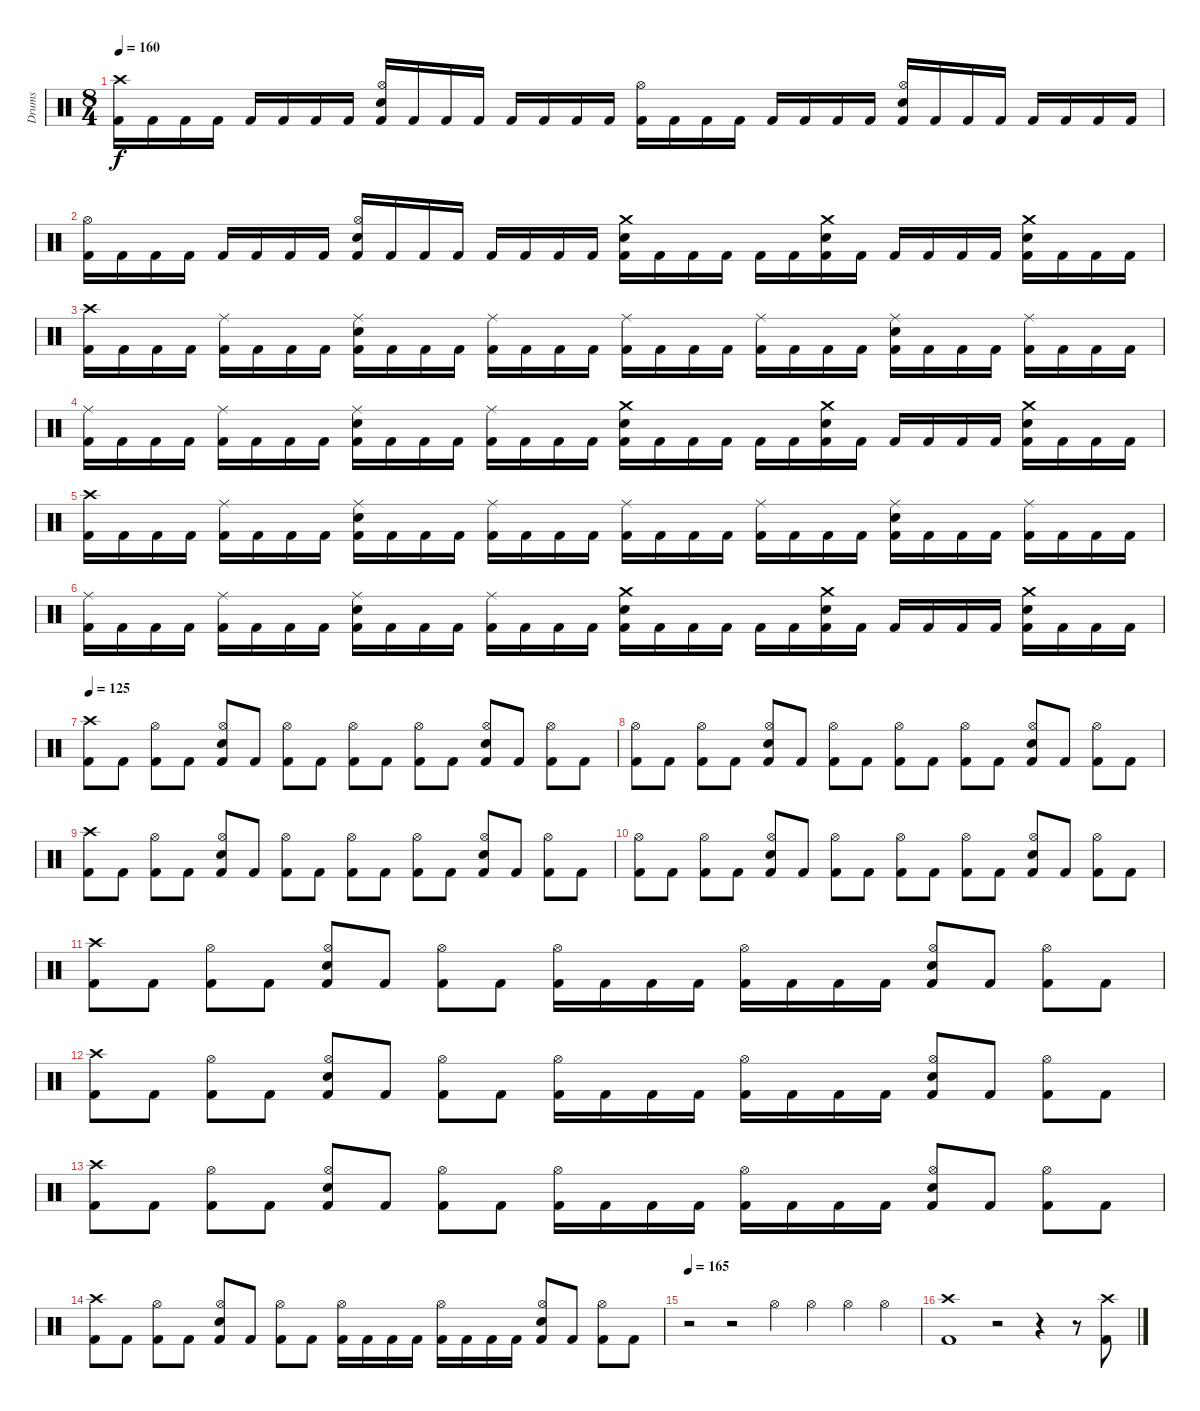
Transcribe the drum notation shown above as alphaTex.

\track ("Drums" "Drums") {instrument percussion}
\staff {score}
\articulation defaults
\ts (8 4)
\tempo 160
\clef neutral
\ks c
("Crash high (hit)" "Kick (hit) 2").16{dy f} "Kick (hit) 2".16 "Kick (hit) 2".16 "Kick (hit) 2".16 "Kick (hit) 2".16 "Kick (hit) 2".16 "Kick (hit) 2".16 "Kick (hit) 2".16 ("Hi-Hat (open)" "Electric Snare (hit)" "Kick (hit) 2").16 "Kick (hit) 2".16 "Kick (hit) 2".16 "Kick (hit) 2".16 "Kick (hit) 2".16 "Kick (hit) 2".16 "Kick (hit) 2".16 "Kick (hit) 2".16 ("Hi-Hat (open)" "Kick (hit) 2").16 "Kick (hit) 2".16 "Kick (hit) 2".16 "Kick (hit) 2".16 "Kick (hit) 2".16 "Kick (hit) 2".16 "Kick (hit) 2".16 "Kick (hit) 2".16 ("Hi-Hat (open)" "Electric Snare (hit)" "Kick (hit) 2").16 "Kick (hit) 2".16 "Kick (hit) 2".16 "Kick (hit) 2".16 "Kick (hit) 2".16 "Kick (hit) 2".16 "Kick (hit) 2".16 "Kick (hit) 2".16 |
("Hi-Hat (open)" "Kick (hit) 2").16 "Kick (hit) 2".16 "Kick (hit) 2".16 "Kick (hit) 2".16 "Kick (hit) 2".16 "Kick (hit) 2".16 "Kick (hit) 2".16 "Kick (hit) 2".16 ("Hi-Hat (open)" "Electric Snare (hit)" "Kick (hit) 2").16 "Kick (hit) 2".16 "Kick (hit) 2".16 "Kick (hit) 2".16 "Kick (hit) 2".16 "Kick (hit) 2".16 "Kick (hit) 2".16 "Kick (hit) 2".16 ("Crash medium (hit)" "Electric Snare (hit)" "Kick (hit) 2").16 "Kick (hit) 2".16 "Kick (hit) 2".16 "Kick (hit) 2".16 "Kick (hit) 2".16 "Kick (hit) 2".16 ("Crash medium (hit)" "Electric Snare (hit)" "Kick (hit) 2").16 "Kick (hit) 2".16 "Kick (hit) 2".16 "Kick (hit) 2".16 "Kick (hit) 2".16 "Kick (hit) 2".16 ("Crash medium (hit)" "Electric Snare (hit)" "Kick (hit) 2").16 "Kick (hit) 2".16 "Kick (hit) 2".16 "Kick (hit) 2".16 |
("Crash high (hit)" "Kick (hit) 2").16 "Kick (hit) 2".16 "Kick (hit) 2".16 "Kick (hit) 2".16 ("Ride (middle)" "Kick (hit) 2").16 "Kick (hit) 2".16 "Kick (hit) 2".16 "Kick (hit) 2".16 ("Ride (middle)" "Electric Snare (hit)" "Kick (hit) 2").16 "Kick (hit) 2".16 "Kick (hit) 2".16 "Kick (hit) 2".16 ("Ride (middle)" "Kick (hit) 2").16 "Kick (hit) 2".16 "Kick (hit) 2".16 "Kick (hit) 2".16 ("Ride (middle)" "Kick (hit) 2").16 "Kick (hit) 2".16 "Kick (hit) 2".16 "Kick (hit) 2".16 ("Ride (middle)" "Kick (hit) 2").16 "Kick (hit) 2".16 "Kick (hit) 2".16 "Kick (hit) 2".16 ("Ride (middle)" "Electric Snare (hit)" "Kick (hit) 2").16 "Kick (hit) 2".16 "Kick (hit) 2".16 "Kick (hit) 2".16 ("Ride (middle)" "Kick (hit) 2").16 "Kick (hit) 2".16 "Kick (hit) 2".16 "Kick (hit) 2".16 |
("Ride (middle)" "Kick (hit) 2").16 "Kick (hit) 2".16 "Kick (hit) 2".16 "Kick (hit) 2".16 ("Ride (middle)" "Kick (hit) 2").16 "Kick (hit) 2".16 "Kick (hit) 2".16 "Kick (hit) 2".16 ("Ride (middle)" "Electric Snare (hit)" "Kick (hit) 2").16 "Kick (hit) 2".16 "Kick (hit) 2".16 "Kick (hit) 2".16 ("Ride (middle)" "Kick (hit) 2").16 "Kick (hit) 2".16 "Kick (hit) 2".16 "Kick (hit) 2".16 ("Crash medium (hit)" "Electric Snare (hit)" "Kick (hit) 2").16 "Kick (hit) 2".16 "Kick (hit) 2".16 "Kick (hit) 2".16 "Kick (hit) 2".16 "Kick (hit) 2".16 ("Crash medium (hit)" "Electric Snare (hit)" "Kick (hit) 2").16 "Kick (hit) 2".16 "Kick (hit) 2".16 "Kick (hit) 2".16 "Kick (hit) 2".16 "Kick (hit) 2".16 ("Crash medium (hit)" "Electric Snare (hit)" "Kick (hit) 2").16 "Kick (hit) 2".16 "Kick (hit) 2".16 "Kick (hit) 2".16 |
("Crash high (hit)" "Kick (hit) 2").16 "Kick (hit) 2".16 "Kick (hit) 2".16 "Kick (hit) 2".16 ("Ride (middle)" "Kick (hit) 2").16 "Kick (hit) 2".16 "Kick (hit) 2".16 "Kick (hit) 2".16 ("Ride (middle)" "Electric Snare (hit)" "Kick (hit) 2").16 "Kick (hit) 2".16 "Kick (hit) 2".16 "Kick (hit) 2".16 ("Ride (middle)" "Kick (hit) 2").16 "Kick (hit) 2".16 "Kick (hit) 2".16 "Kick (hit) 2".16 ("Ride (middle)" "Kick (hit) 2").16 "Kick (hit) 2".16 "Kick (hit) 2".16 "Kick (hit) 2".16 ("Ride (middle)" "Kick (hit) 2").16 "Kick (hit) 2".16 "Kick (hit) 2".16 "Kick (hit) 2".16 ("Ride (middle)" "Electric Snare (hit)" "Kick (hit) 2").16 "Kick (hit) 2".16 "Kick (hit) 2".16 "Kick (hit) 2".16 ("Ride (middle)" "Kick (hit) 2").16 "Kick (hit) 2".16 "Kick (hit) 2".16 "Kick (hit) 2".16 |
("Ride (middle)" "Kick (hit) 2").16 "Kick (hit) 2".16 "Kick (hit) 2".16 "Kick (hit) 2".16 ("Ride (middle)" "Kick (hit) 2").16 "Kick (hit) 2".16 "Kick (hit) 2".16 "Kick (hit) 2".16 ("Ride (middle)" "Electric Snare (hit)" "Kick (hit) 2").16 "Kick (hit) 2".16 "Kick (hit) 2".16 "Kick (hit) 2".16 ("Ride (middle)" "Kick (hit) 2").16 "Kick (hit) 2".16 "Kick (hit) 2".16 "Kick (hit) 2".16 ("Crash medium (hit)" "Electric Snare (hit)" "Kick (hit) 2").16 "Kick (hit) 2".16 "Kick (hit) 2".16 "Kick (hit) 2".16 "Kick (hit) 2".16 "Kick (hit) 2".16 ("Crash medium (hit)" "Electric Snare (hit)" "Kick (hit) 2").16 "Kick (hit) 2".16 "Kick (hit) 2".16 "Kick (hit) 2".16 "Kick (hit) 2".16 "Kick (hit) 2".16 ("Crash medium (hit)" "Electric Snare (hit)" "Kick (hit) 2").16 "Kick (hit) 2".16 "Kick (hit) 2".16 "Kick (hit) 2".16 |
\tempo 125
("Crash high (hit)" "Kick (hit) 2").8 "Kick (hit) 2".8 ("Hi-Hat (open)" "Kick (hit) 2").8 "Kick (hit) 2".8 ("Hi-Hat (open)" "Electric Snare (hit)" "Kick (hit) 2").8 "Kick (hit) 2".8 ("Hi-Hat (open)" "Kick (hit) 2").8 "Kick (hit) 2".8 ("Hi-Hat (open)" "Kick (hit) 2").8 "Kick (hit) 2".8 ("Hi-Hat (open)" "Kick (hit) 2").8 "Kick (hit) 2".8 ("Hi-Hat (open)" "Electric Snare (hit)" "Kick (hit) 2").8 "Kick (hit) 2".8 ("Hi-Hat (open)" "Kick (hit) 2").8 "Kick (hit) 2".8 |
("Hi-Hat (open)" "Kick (hit) 2").8 "Kick (hit) 2".8 ("Hi-Hat (open)" "Kick (hit) 2").8 "Kick (hit) 2".8 ("Hi-Hat (open)" "Electric Snare (hit)" "Kick (hit) 2").8 "Kick (hit) 2".8 ("Hi-Hat (open)" "Kick (hit) 2").8 "Kick (hit) 2".8 ("Hi-Hat (open)" "Kick (hit) 2").8 "Kick (hit) 2".8 ("Hi-Hat (open)" "Kick (hit) 2").8 "Kick (hit) 2".8 ("Hi-Hat (open)" "Electric Snare (hit)" "Kick (hit) 2").8 "Kick (hit) 2".8 ("Hi-Hat (open)" "Kick (hit) 2").8 "Kick (hit) 2".8 |
("Crash high (hit)" "Kick (hit) 2").8 "Kick (hit) 2".8 ("Hi-Hat (open)" "Kick (hit) 2").8 "Kick (hit) 2".8 ("Hi-Hat (open)" "Electric Snare (hit)" "Kick (hit) 2").8 "Kick (hit) 2".8 ("Hi-Hat (open)" "Kick (hit) 2").8 "Kick (hit) 2".8 ("Hi-Hat (open)" "Kick (hit) 2").8 "Kick (hit) 2".8 ("Hi-Hat (open)" "Kick (hit) 2").8 "Kick (hit) 2".8 ("Hi-Hat (open)" "Electric Snare (hit)" "Kick (hit) 2").8 "Kick (hit) 2".8 ("Hi-Hat (open)" "Kick (hit) 2").8 "Kick (hit) 2".8 |
("Hi-Hat (open)" "Kick (hit) 2").8 "Kick (hit) 2".8 ("Hi-Hat (open)" "Kick (hit) 2").8 "Kick (hit) 2".8 ("Hi-Hat (open)" "Electric Snare (hit)" "Kick (hit) 2").8 "Kick (hit) 2".8 ("Hi-Hat (open)" "Kick (hit) 2").8 "Kick (hit) 2".8 ("Hi-Hat (open)" "Kick (hit) 2").8 "Kick (hit) 2".8 ("Hi-Hat (open)" "Kick (hit) 2").8 "Kick (hit) 2".8 ("Hi-Hat (open)" "Electric Snare (hit)" "Kick (hit) 2").8 "Kick (hit) 2".8 ("Hi-Hat (open)" "Kick (hit) 2").8 "Kick (hit) 2".8 |
("Crash high (hit)" "Kick (hit) 2").8 "Kick (hit) 2".8 ("Hi-Hat (open)" "Kick (hit) 2").8 "Kick (hit) 2".8 ("Hi-Hat (open)" "Electric Snare (hit)" "Kick (hit) 2").8 "Kick (hit) 2".8 ("Hi-Hat (open)" "Kick (hit) 2").8 "Kick (hit) 2".8 ("Hi-Hat (open)" "Kick (hit) 2").16 "Kick (hit) 2".16 "Kick (hit) 2".16 "Kick (hit) 2".16 ("Hi-Hat (open)" "Kick (hit) 2").16 "Kick (hit) 2".16 "Kick (hit) 2".16 "Kick (hit) 2".16 ("Hi-Hat (open)" "Electric Snare (hit)" "Kick (hit) 2").8 "Kick (hit) 2".8 ("Hi-Hat (open)" "Kick (hit) 2").8 "Kick (hit) 2".8 |
("Crash high (hit)" "Kick (hit) 2").8 "Kick (hit) 2".8 ("Hi-Hat (open)" "Kick (hit) 2").8 "Kick (hit) 2".8 ("Hi-Hat (open)" "Electric Snare (hit)" "Kick (hit) 2").8 "Kick (hit) 2".8 ("Hi-Hat (open)" "Kick (hit) 2").8 "Kick (hit) 2".8 ("Hi-Hat (open)" "Kick (hit) 2").16 "Kick (hit) 2".16 "Kick (hit) 2".16 "Kick (hit) 2".16 ("Hi-Hat (open)" "Kick (hit) 2").16 "Kick (hit) 2".16 "Kick (hit) 2".16 "Kick (hit) 2".16 ("Hi-Hat (open)" "Electric Snare (hit)" "Kick (hit) 2").8 "Kick (hit) 2".8 ("Hi-Hat (open)" "Kick (hit) 2").8 "Kick (hit) 2".8 |
("Crash high (hit)" "Kick (hit) 2").8 "Kick (hit) 2".8 ("Hi-Hat (open)" "Kick (hit) 2").8 "Kick (hit) 2".8 ("Hi-Hat (open)" "Electric Snare (hit)" "Kick (hit) 2").8 "Kick (hit) 2".8 ("Hi-Hat (open)" "Kick (hit) 2").8 "Kick (hit) 2".8 ("Hi-Hat (open)" "Kick (hit) 2").16 "Kick (hit) 2".16 "Kick (hit) 2".16 "Kick (hit) 2".16 ("Hi-Hat (open)" "Kick (hit) 2").16 "Kick (hit) 2".16 "Kick (hit) 2".16 "Kick (hit) 2".16 ("Hi-Hat (open)" "Electric Snare (hit)" "Kick (hit) 2").8 "Kick (hit) 2".8 ("Hi-Hat (open)" "Kick (hit) 2").8 "Kick (hit) 2".8 |
("Crash high (hit)" "Kick (hit) 2").8 "Kick (hit) 2".8 ("Hi-Hat (open)" "Kick (hit) 2").8 "Kick (hit) 2".8 ("Hi-Hat (open)" "Electric Snare (hit)" "Kick (hit) 2").8 "Kick (hit) 2".8 ("Hi-Hat (open)" "Kick (hit) 2").8 "Kick (hit) 2".8 ("Hi-Hat (open)" "Kick (hit) 2").16 "Kick (hit) 2".16 "Kick (hit) 2".16 "Kick (hit) 2".16 ("Hi-Hat (open)" "Kick (hit) 2").16 "Kick (hit) 2".16 "Kick (hit) 2".16 "Kick (hit) 2".16 ("Hi-Hat (open)" "Electric Snare (hit)" "Kick (hit) 2").8 "Kick (hit) 2".8 ("Hi-Hat (open)" "Kick (hit) 2").8 "Kick (hit) 2".8 |
\tempo 165
r.2 r.2 "Hi-Hat (open)".4 "Hi-Hat (open)".4 "Hi-Hat (open)".4 "Hi-Hat (open)".4 |
("Crash high (hit)" "Kick (hit) 2").1 r.2 r.4 r.8 ("Crash high (hit)" "Kick (hit) 2").8
